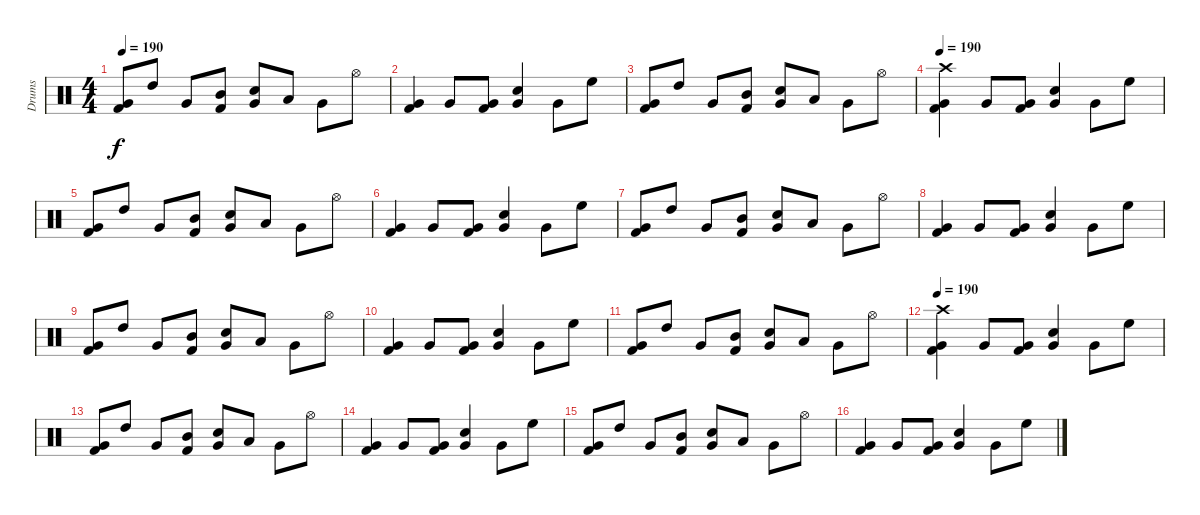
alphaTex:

\track ("Drums" "Drums") {instrument percussion}
\staff {score}
\articulation defaults
\ts (4 4)
\tempo 190
\clef neutral
\ks c
("Very Low Tom (hit)" "Kick (hit) 2").8{dy f} "High Tom (hit)".8 "Very Low Tom (hit)".8 ("Mid Tom (hit)" "Kick (hit) 2").8 ("Very Low Tom (hit)" "Electric Snare (hit)").8 "Low Tom (hit)".8 "Very Low Tom (hit)".8 "Hi-Hat (open)".8 |
("Very Low Tom (hit)" "Kick (hit) 2").4 "Very Low Tom (hit)".8 ("Very Low Tom (hit)" "Kick (hit) 2").8 ("Very Low Tom (hit)" "Electric Snare (hit)").4 "Very Low Tom (hit)".8 "High Floor Tom (hit)".8 |
("Very Low Tom (hit)" "Kick (hit) 2").8 "High Tom (hit)".8 "Very Low Tom (hit)".8 ("Mid Tom (hit)" "Kick (hit) 2").8 ("Very Low Tom (hit)" "Electric Snare (hit)").8 "Low Tom (hit)".8 "Very Low Tom (hit)".8 "Hi-Hat (open)".8 |
\tempo 190
("Crash high (hit)" "Very Low Tom (hit)" "Kick (hit) 2").4 "Very Low Tom (hit)".8 ("Very Low Tom (hit)" "Kick (hit) 2").8 ("Very Low Tom (hit)" "Electric Snare (hit)").4 "Very Low Tom (hit)".8 "High Floor Tom (hit)".8 |
("Very Low Tom (hit)" "Kick (hit) 2").8 "High Tom (hit)".8 "Very Low Tom (hit)".8 ("Mid Tom (hit)" "Kick (hit) 2").8 ("Very Low Tom (hit)" "Electric Snare (hit)").8 "Low Tom (hit)".8 "Very Low Tom (hit)".8 "Hi-Hat (open)".8 |
("Very Low Tom (hit)" "Kick (hit) 2").4 "Very Low Tom (hit)".8 ("Very Low Tom (hit)" "Kick (hit) 2").8 ("Very Low Tom (hit)" "Electric Snare (hit)").4 "Very Low Tom (hit)".8 "High Floor Tom (hit)".8 |
("Very Low Tom (hit)" "Kick (hit) 2").8 "High Tom (hit)".8 "Very Low Tom (hit)".8 ("Mid Tom (hit)" "Kick (hit) 2").8 ("Very Low Tom (hit)" "Electric Snare (hit)").8 "Low Tom (hit)".8 "Very Low Tom (hit)".8 "Hi-Hat (open)".8 |
("Very Low Tom (hit)" "Kick (hit) 2").4 "Very Low Tom (hit)".8 ("Very Low Tom (hit)" "Kick (hit) 2").8 ("Very Low Tom (hit)" "Electric Snare (hit)").4 "Very Low Tom (hit)".8 "High Floor Tom (hit)".8 |
("Very Low Tom (hit)" "Kick (hit) 2").8 "High Tom (hit)".8 "Very Low Tom (hit)".8 ("Mid Tom (hit)" "Kick (hit) 2").8 ("Very Low Tom (hit)" "Electric Snare (hit)").8 "Low Tom (hit)".8 "Very Low Tom (hit)".8 "Hi-Hat (open)".8 |
("Very Low Tom (hit)" "Kick (hit) 2").4 "Very Low Tom (hit)".8 ("Very Low Tom (hit)" "Kick (hit) 2").8 ("Very Low Tom (hit)" "Electric Snare (hit)").4 "Very Low Tom (hit)".8 "High Floor Tom (hit)".8 |
("Very Low Tom (hit)" "Kick (hit) 2").8 "High Tom (hit)".8 "Very Low Tom (hit)".8 ("Mid Tom (hit)" "Kick (hit) 2").8 ("Very Low Tom (hit)" "Electric Snare (hit)").8 "Low Tom (hit)".8 "Very Low Tom (hit)".8 "Hi-Hat (open)".8 |
\tempo 190
("Crash high (hit)" "Very Low Tom (hit)" "Kick (hit) 2").4 "Very Low Tom (hit)".8 ("Very Low Tom (hit)" "Kick (hit) 2").8 ("Very Low Tom (hit)" "Electric Snare (hit)").4 "Very Low Tom (hit)".8 "High Floor Tom (hit)".8 |
("Very Low Tom (hit)" "Kick (hit) 2").8 "High Tom (hit)".8 "Very Low Tom (hit)".8 ("Mid Tom (hit)" "Kick (hit) 2").8 ("Very Low Tom (hit)" "Electric Snare (hit)").8 "Low Tom (hit)".8 "Very Low Tom (hit)".8 "Hi-Hat (open)".8 |
("Very Low Tom (hit)" "Kick (hit) 2").4 "Very Low Tom (hit)".8 ("Very Low Tom (hit)" "Kick (hit) 2").8 ("Very Low Tom (hit)" "Electric Snare (hit)").4 "Very Low Tom (hit)".8 "High Floor Tom (hit)".8 |
("Very Low Tom (hit)" "Kick (hit) 2").8 "High Tom (hit)".8 "Very Low Tom (hit)".8 ("Mid Tom (hit)" "Kick (hit) 2").8 ("Very Low Tom (hit)" "Electric Snare (hit)").8 "Low Tom (hit)".8 "Very Low Tom (hit)".8 "Hi-Hat (open)".8 |
("Very Low Tom (hit)" "Kick (hit) 2").4 "Very Low Tom (hit)".8 ("Very Low Tom (hit)" "Kick (hit) 2").8 ("Very Low Tom (hit)" "Electric Snare (hit)").4 "Very Low Tom (hit)".8 "High Floor Tom (hit)".8
